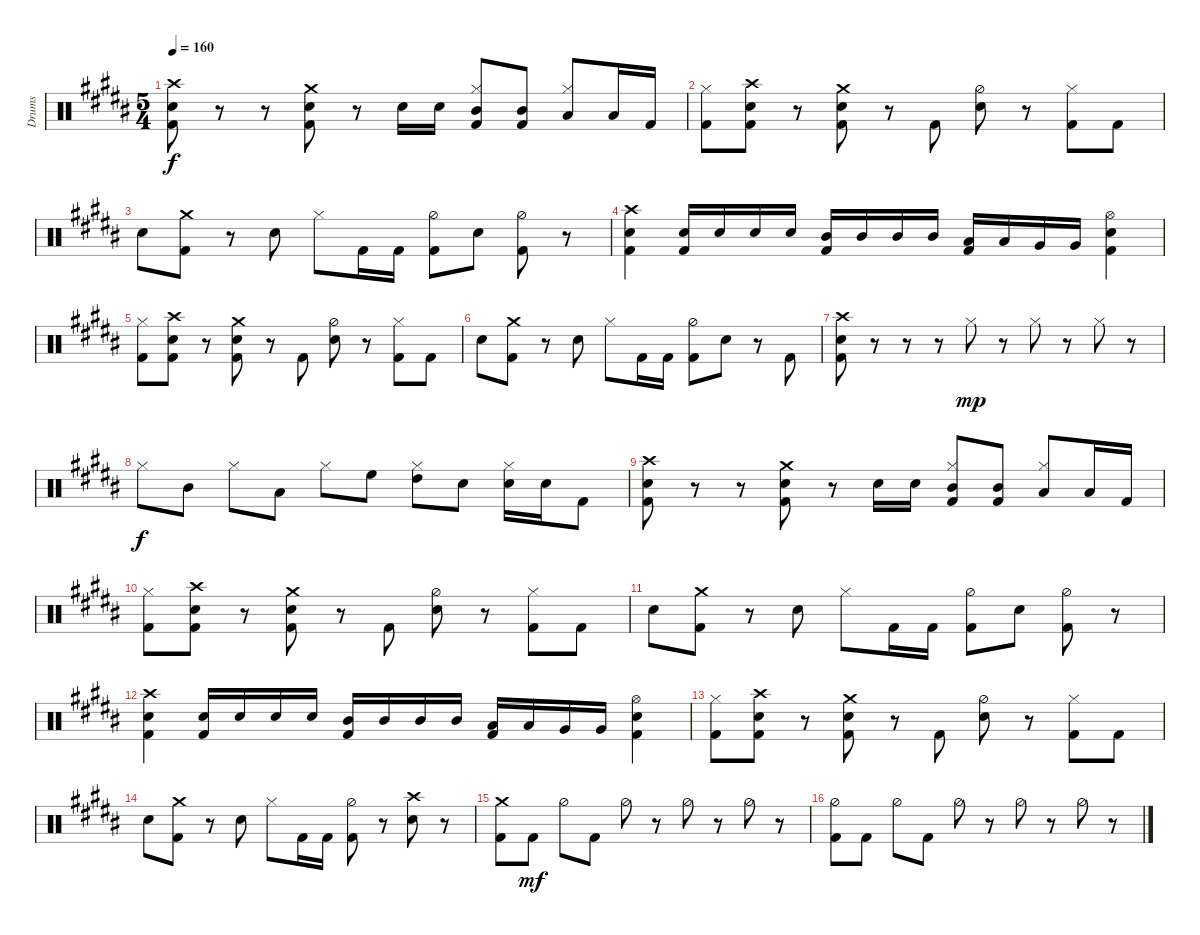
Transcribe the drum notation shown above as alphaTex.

\bracketExtendMode groupsimilarinstruments
\otherSystemsTrackNameOrientation horizontal
\track ("Drumkit" "Drums") {instrument percussion}
\staff {score}
\articulation defaults
\ts (5 4)
\tempo 160
\clef neutral
\ks b
("Snare (hit) 2"{acc bb} "Kick (hit) 2"{acc bb} "Crash high (hit)"{acc bb}).8{dy f beam Down} r.8{beam Down} r.8{beam Down} ("Snare (hit) 2"{acc bb} "Crash medium (hit)"{acc bb} "Kick (hit) 2"{acc bb}).8{beam Down} r.8{beam Down} "Snare (hit) 2"{acc bb}.16{beam Down} "Snare (hit) 2"{acc bb}.16{beam Down} ("Mid Tom (hit)"{acc bb} "Kick (hit) 2"{acc bb} "Hi-Hat (closed)"{acc bb}).8{beam Up} ("Mid Tom (hit)"{acc bb} "Kick (hit) 2"{acc bb}).8{beam Up} ("Low Tom (hit)"{acc bb} "Hi-Hat (closed)"{acc bb}).8{beam Up} "Low Tom (hit)"{acc bb}.16{beam Up} "Kick (hit) 2"{acc bb}.16{beam Up} |
("Kick (hit) 2"{acc bb} "Hi-Hat (closed)"{acc bb}).8{beam Down} ("Kick (hit) 2"{acc bb} "Crash high (hit)"{acc bb} "Snare (hit) 2"{acc bb}).8{beam Down} r.8{beam Down} ("Crash medium (hit)"{acc bb} "Kick (hit) 2"{acc bb} "Snare (hit) 2"{acc bb}).8{beam Down} r.8{beam Down} "Kick (hit) 2"{acc bb}.8{beam Down} ("Snare (hit) 2"{acc bb} "Hi-Hat (half)"{acc bb}).8{beam Down} r.8{beam Down} ("Kick (hit) 2"{acc bb} "Hi-Hat (closed)"{acc bb}).8{beam Down} "Kick (hit) 2"{acc bb}.8{beam Down} |
"Snare (hit) 2"{acc bb}.8{beam Down} ("Kick (hit) 2"{acc bb} "Crash medium (hit)"{acc bb}).8{beam Down} r.8{beam Down} "Snare (hit) 2"{acc bb}.8{beam Down} "Hi-Hat (closed)"{acc bb}.8{beam Down} "Kick (hit) 2"{acc bb}.16{beam Down} "Kick (hit) 2"{acc bb}.16{beam Down} ("Hi-Hat (half)"{acc bb} "Kick (hit) 2"{acc bb}).8{beam Down} "Snare (hit) 2"{acc bb}.8{beam Down} ("Hi-Hat (half)"{acc bb} "Kick (hit) 2"{acc bb}).8{beam Down} r.8{beam Down} |
("Crash high (hit)"{acc bb} "Snare (hit) 2"{acc bb} "Kick (hit) 2"{acc bb}).4{beam Down} ("Snare (hit) 2"{acc bb} "Kick (hit) 2"{acc bb}).16{beam Up} "Snare (hit) 2"{acc bb}.16{beam Up} "Snare (hit) 2"{acc bb}.16{beam Up} "Snare (hit) 2"{acc bb}.16{beam Up} ("Mid Tom (hit)"{acc bb} "Kick (hit) 2"{acc bb}).16{beam Up} "Mid Tom (hit)"{acc bb}.16{beam Up} "Mid Tom (hit)"{acc bb}.16{beam Up} "Mid Tom (hit)"{acc bb}.16{beam Up} ("Low Tom (hit)"{acc bb} "Kick (hit) 2"{acc bb}).16{beam Up} "Low Tom (hit)"{acc bb}.16{beam Up} "Very Low Tom (hit)"{acc bb}.16{beam Up} "Very Low Tom (hit)"{acc bb}.16{beam Up} ("Hi-Hat (open)"{acc bb} "Snare (hit) 2"{acc bb} "Kick (hit) 2"{acc bb}).4{beam Down} |
("Kick (hit) 2"{acc bb} "Hi-Hat (closed)"{acc bb}).8{beam Down} ("Kick (hit) 2"{acc bb} "Crash high (hit)"{acc bb} "Snare (hit) 2"{acc bb}).8{beam Down} r.8{beam Down} ("Crash medium (hit)"{acc bb} "Kick (hit) 2"{acc bb} "Snare (hit) 2"{acc bb}).8{beam Down} r.8{beam Down} "Kick (hit) 2"{acc bb}.8{beam Down} ("Snare (hit) 2"{acc bb} "Hi-Hat (half)"{acc bb}).8{beam Down} r.8{beam Down} ("Kick (hit) 2"{acc bb} "Hi-Hat (closed)"{acc bb}).8{beam Down} "Kick (hit) 2"{acc bb}.8{beam Down} |
"Snare (hit) 2"{acc bb}.8{beam Down} ("Kick (hit) 2"{acc bb} "Crash medium (hit)"{acc bb}).8{beam Down} r.8{beam Down} "Snare (hit) 2"{acc bb}.8{beam Down} "Hi-Hat (closed)"{acc bb}.8{beam Down} "Kick (hit) 2"{acc bb}.16{beam Down} "Kick (hit) 2"{acc bb}.16{beam Down} ("Hi-Hat (half)"{acc bb} "Kick (hit) 2"{acc bb}).8{beam Down} "Snare (hit) 2"{acc bb}.8{beam Down} r.8{beam Down} "Kick (hit) 2"{acc bb}.8{beam Down} |
("Crash high (hit)"{acc bb} "Snare (hit) 2"{acc bb} "Kick (hit) 2"{acc bb}).8{beam Down} r.8{beam Down} r.8{beam Down} r.8{beam Down} "Hi-Hat (closed)"{acc bb}.8{dy mp beam Down} r.8{beam Down} "Hi-Hat (closed)"{acc bb}.8{beam Down} r.8{beam Down} "Hi-Hat (closed)"{acc bb}.8{beam Down} r.8{beam Down} |
"Hi-Hat (closed)"{acc bb}.8{dy f beam Down} "Mid Tom (hit)"{acc bb}.8{beam Down} "Hi-Hat (closed)"{acc bb}.8{beam Down} "Low Tom (hit)"{acc bb}.8{beam Down} "Hi-Hat (closed)"{acc bb}.8{beam Down} "High Floor Tom (hit)"{acc bb}.8{beam Down} ("Hi-Hat (closed)"{acc bb} "High Tom (hit)"{acc bb}).8{beam Down} "Snare (hit) 2"{acc bb}.8{beam Down} ("Hi-Hat (closed)"{acc bb} "Snare (hit) 2"{acc bb}).16{beam Down} "Snare (hit) 2"{acc bb}.16{beam Down} "Kick (hit) 2"{acc bb}.8{beam Down} |
("Snare (hit) 2"{acc bb} "Kick (hit) 2"{acc bb} "Crash high (hit)"{acc bb}).8{beam Down} r.8{beam Down} r.8{beam Down} ("Snare (hit) 2"{acc bb} "Crash medium (hit)"{acc bb} "Kick (hit) 2"{acc bb}).8{beam Down} r.8{beam Down} "Snare (hit) 2"{acc bb}.16{beam Down} "Snare (hit) 2"{acc bb}.16{beam Down} ("Mid Tom (hit)"{acc bb} "Kick (hit) 2"{acc bb} "Hi-Hat (closed)"{acc bb}).8{beam Up} ("Mid Tom (hit)"{acc bb} "Kick (hit) 2"{acc bb}).8{beam Up} ("Low Tom (hit)"{acc bb} "Hi-Hat (closed)"{acc bb}).8{beam Up} "Low Tom (hit)"{acc bb}.16{beam Up} "Kick (hit) 2"{acc bb}.16{beam Up} |
("Kick (hit) 2"{acc bb} "Hi-Hat (closed)"{acc bb}).8{beam Down} ("Kick (hit) 2"{acc bb} "Crash high (hit)"{acc bb} "Snare (hit) 2"{acc bb}).8{beam Down} r.8{beam Down} ("Crash medium (hit)"{acc bb} "Kick (hit) 2"{acc bb} "Snare (hit) 2"{acc bb}).8{beam Down} r.8{beam Down} "Kick (hit) 2"{acc bb}.8{beam Down} ("Snare (hit) 2"{acc bb} "Hi-Hat (half)"{acc bb}).8{beam Down} r.8{beam Down} ("Kick (hit) 2"{acc bb} "Hi-Hat (closed)"{acc bb}).8{beam Down} "Kick (hit) 2"{acc bb}.8{beam Down} |
"Snare (hit) 2"{acc bb}.8{beam Down} ("Kick (hit) 2"{acc bb} "Crash medium (hit)"{acc bb}).8{beam Down} r.8{beam Down} "Snare (hit) 2"{acc bb}.8{beam Down} "Hi-Hat (closed)"{acc bb}.8{beam Down} "Kick (hit) 2"{acc bb}.16{beam Down} "Kick (hit) 2"{acc bb}.16{beam Down} ("Hi-Hat (half)"{acc bb} "Kick (hit) 2"{acc bb}).8{beam Down} "Snare (hit) 2"{acc bb}.8{beam Down} ("Hi-Hat (half)"{acc bb} "Kick (hit) 2"{acc bb}).8{beam Down} r.8{beam Down} |
("Crash high (hit)"{acc bb} "Snare (hit) 2"{acc bb} "Kick (hit) 2"{acc bb}).4{beam Down} ("Snare (hit) 2"{acc bb} "Kick (hit) 2"{acc bb}).16{beam Up} "Snare (hit) 2"{acc bb}.16{beam Up} "Snare (hit) 2"{acc bb}.16{beam Up} "Snare (hit) 2"{acc bb}.16{beam Up} ("Mid Tom (hit)"{acc bb} "Kick (hit) 2"{acc bb}).16{beam Up} "Mid Tom (hit)"{acc bb}.16{beam Up} "Mid Tom (hit)"{acc bb}.16{beam Up} "Mid Tom (hit)"{acc bb}.16{beam Up} ("Low Tom (hit)"{acc bb} "Kick (hit) 2"{acc bb}).16{beam Up} "Low Tom (hit)"{acc bb}.16{beam Up} "Very Low Tom (hit)"{acc bb}.16{beam Up} "Very Low Tom (hit)"{acc bb}.16{beam Up} ("Hi-Hat (open)"{acc bb} "Snare (hit) 2"{acc bb} "Kick (hit) 2"{acc bb}).4{beam Down} |
("Kick (hit) 2"{acc bb} "Hi-Hat (closed)"{acc bb}).8{beam Down} ("Kick (hit) 2"{acc bb} "Crash high (hit)"{acc bb} "Snare (hit) 2"{acc bb}).8{beam Down} r.8{beam Down} ("Crash medium (hit)"{acc bb} "Kick (hit) 2"{acc bb} "Snare (hit) 2"{acc bb}).8{beam Down} r.8{beam Down} "Kick (hit) 2"{acc bb}.8{beam Down} ("Snare (hit) 2"{acc bb} "Hi-Hat (half)"{acc bb}).8{beam Down} r.8{beam Down} ("Kick (hit) 2"{acc bb} "Hi-Hat (closed)"{acc bb}).8{beam Down} "Kick (hit) 2"{acc bb}.8{beam Down} |
"Snare (hit) 2"{acc bb}.8{beam Down} ("Kick (hit) 2"{acc bb} "Crash medium (hit)"{acc bb}).8{beam Down} r.8{beam Down} "Snare (hit) 2"{acc bb}.8{beam Down} "Hi-Hat (closed)"{acc bb}.8{beam Down} "Kick (hit) 2"{acc bb}.16{beam Down} "Kick (hit) 2"{acc bb}.16{beam Down} ("Hi-Hat (half)"{acc bb} "Kick (hit) 2"{acc bb}).8{beam Down} r.8{beam Down} ("Crash high (hit)"{acc bb} "Snare (hit) 2"{acc bb}).8{beam Down} r.8{beam Down} |
("Kick (hit) 2"{acc bb} "Crash medium (hit)"{acc bb}).8{beam Down} "Kick (hit) 2"{acc bb}.8{dy mf beam Down} "Hi-Hat (half)"{acc bb}.8{beam Down} "Kick (hit) 2"{acc bb}.8{beam Down} "Hi-Hat (half)"{acc bb}.8{beam Down} r.8{beam Down} "Hi-Hat (half)"{acc bb}.8{beam Down} r.8{beam Down} "Hi-Hat (half)"{acc bb}.8{beam Down} r.8{beam Down} |
("Kick (hit) 2"{acc bb} "Hi-Hat (half)"{acc bb}).8{beam Down} "Kick (hit) 2"{acc bb}.8{beam Down} "Hi-Hat (half)"{acc bb}.8{beam Down} "Kick (hit) 2"{acc bb}.8{beam Down} "Hi-Hat (half)"{acc bb}.8{beam Down} r.8{beam Down} "Hi-Hat (half)"{acc bb}.8{beam Down} r.8{beam Down} "Hi-Hat (half)"{acc bb}.8{beam Down} r.8{beam Down}
